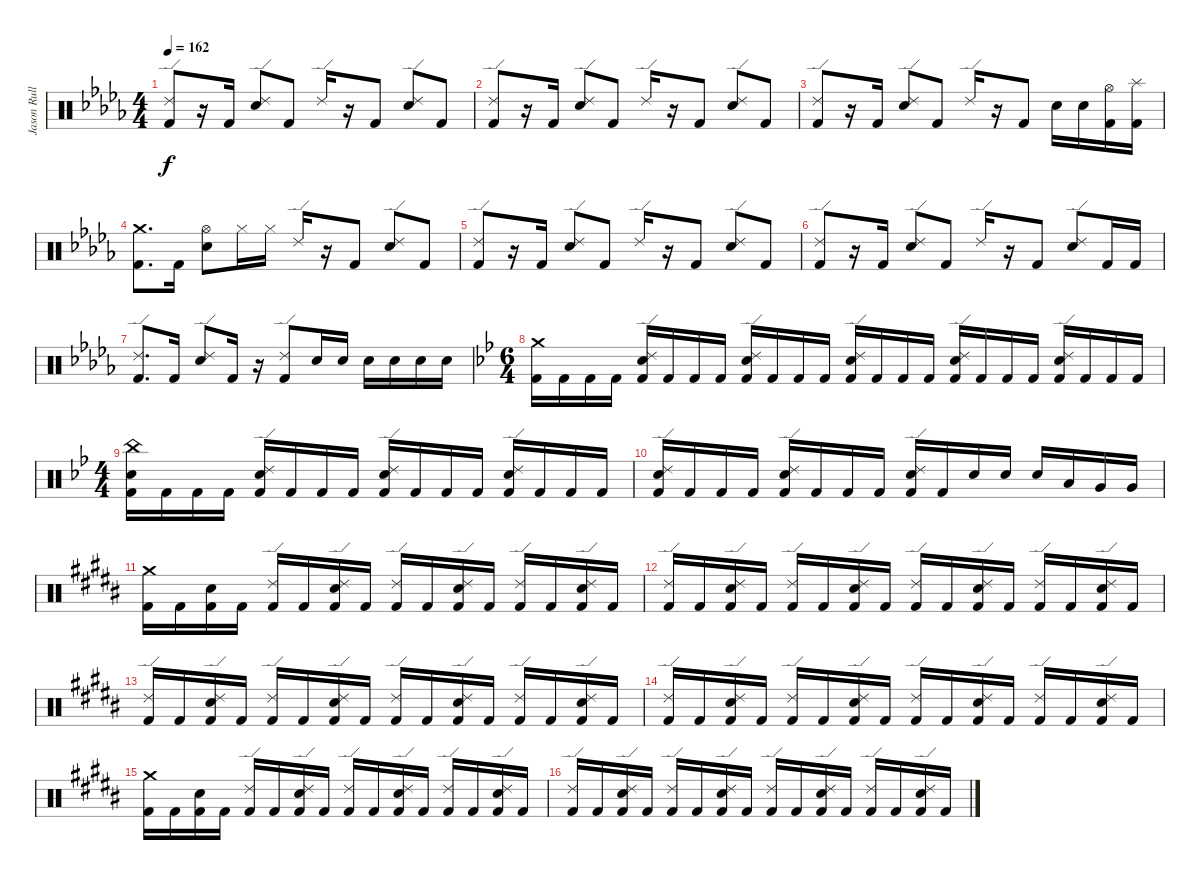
\track ("Jason Rullo" "Jason Rull") {instrument percussion}
\staff {score}
\articulation defaults
\ts (4 4)
\tempo 162
\clef neutral
\ks bbminor
("Ride (edge) 2" "Kick (hit) 2").8{dy f} r.16 "Kick (hit) 2".16 ("Electric Snare (hit)" "Ride (edge) 2").8 "Kick (hit) 2".8 "Ride (edge) 2".16 r.16 "Kick (hit) 2".8 ("Electric Snare (hit)" "Ride (edge) 2").8 "Kick (hit) 2".8 |
("Ride (edge) 2" "Kick (hit) 2").8 r.16 "Kick (hit) 2".16 ("Electric Snare (hit)" "Ride (edge) 2").8 "Kick (hit) 2".8 "Ride (edge) 2".16 r.16 "Kick (hit) 2".8 ("Electric Snare (hit)" "Ride (edge) 2").8 "Kick (hit) 2".8 |
("Ride (edge) 2" "Kick (hit) 2").8 r.16 "Kick (hit) 2".16 ("Electric Snare (hit)" "Ride (edge) 2").8 "Kick (hit) 2".8 "Ride (edge) 2".16 r.16 "Kick (hit) 2".8 "Electric Snare (hit)".16 "Electric Snare (hit)".16 ("Kick (hit) 2" "Hi-Hat (open)").16 ("Kick (hit) 2" "Splash (hit)").16 |
("Crash medium (hit)" "Kick (hit) 2").8{d} "Kick (hit) 2".16 ("Hi-Hat (open)" "Electric Snare (hit)").8 "Hi-Hat (closed)".16 "Hi-Hat (closed)".16 "Ride (edge) 2".16 r.16 "Kick (hit) 2".8 ("Ride (edge) 2" "Electric Snare (hit)").8 "Kick (hit) 2".8 |
("Ride (edge) 2" "Kick (hit) 2").8 r.16 "Kick (hit) 2".16 ("Electric Snare (hit)" "Ride (edge) 2").8 "Kick (hit) 2".8 "Ride (edge) 2".16 r.16 "Kick (hit) 2".8 ("Electric Snare (hit)" "Ride (edge) 2").8 "Kick (hit) 2".8 |
("Ride (edge) 2" "Kick (hit) 2").8 r.16 "Kick (hit) 2".16 ("Electric Snare (hit)" "Ride (edge) 2").8 "Kick (hit) 2".8 "Ride (edge) 2".16 r.16 "Kick (hit) 2".8 ("Electric Snare (hit)" "Ride (edge) 2").8 "Kick (hit) 2".16 "Kick (hit) 2".16 |
("Ride (edge) 2" "Kick (hit) 2").8{d} "Kick (hit) 2".16 ("Ride (edge) 2" "Electric Snare (hit)").8 "Kick (hit) 2".16 r.16 ("Ride (edge) 2" "Kick (hit) 2").8 "Electric Snare (hit)".16 "Electric Snare (hit)".16 "Electric Snare (hit)".16 "Electric Snare (hit)".16 "Electric Snare (hit)".16 "Electric Snare (hit)".16 |
\ts (6 4)
\ks gminor
("Crash medium (hit)" "Kick (hit) 2").16 "Kick (hit) 2".16 "Kick (hit) 2".16 "Kick (hit) 2".16 ("Ride (edge) 2" "Electric Snare (hit)" "Kick (hit) 2").16 "Kick (hit) 2".16 "Kick (hit) 2".16 "Kick (hit) 2".16 ("Ride (edge) 2" "Electric Snare (hit)" "Kick (hit) 2").16 "Kick (hit) 2".16 "Kick (hit) 2".16 "Kick (hit) 2".16 ("Ride (edge) 2" "Electric Snare (hit)" "Kick (hit) 2").16 "Kick (hit) 2".16 "Kick (hit) 2".16 "Kick (hit) 2".16 ("Ride (edge) 2" "Electric Snare (hit)" "Kick (hit) 2").16 "Kick (hit) 2".16 "Kick (hit) 2".16 "Kick (hit) 2".16 ("Ride (edge) 2" "Electric Snare (hit)" "Kick (hit) 2").16 "Kick (hit) 2".16 "Kick (hit) 2".16 "Kick (hit) 2".16 |
\ts (4 4)
("China (hit)" "Electric Snare (hit)" "Kick (hit) 2").16 "Kick (hit) 2".16 "Kick (hit) 2".16 "Kick (hit) 2".16 ("Ride (edge) 2" "Electric Snare (hit)" "Kick (hit) 2").16 "Kick (hit) 2".16 "Kick (hit) 2".16 "Kick (hit) 2".16 ("Ride (edge) 2" "Electric Snare (hit)" "Kick (hit) 2").16 "Kick (hit) 2".16 "Kick (hit) 2".16 "Kick (hit) 2".16 ("Ride (edge) 2" "Electric Snare (hit)" "Kick (hit) 2").16 "Kick (hit) 2".16 "Kick (hit) 2".16 "Kick (hit) 2".16 |
("Ride (edge) 2" "Electric Snare (hit)" "Kick (hit) 2").16 "Kick (hit) 2".16 "Kick (hit) 2".16 "Kick (hit) 2".16 ("Ride (edge) 2" "Electric Snare (hit)" "Kick (hit) 2").16 "Kick (hit) 2".16 "Kick (hit) 2".16 "Kick (hit) 2".16 ("Ride (edge) 2" "Electric Snare (hit)" "Kick (hit) 2").16 "Kick (hit) 2".16 "Electric Snare (hit)".16 "Electric Snare (hit)".16 "Electric Snare (hit)".16 "Low Tom (hit)".16 "Very Low Tom (hit)".16 "Very Low Tom (hit)".16 |
\ks g#minor
("Crash medium (hit)" "Kick (hit) 2").16 "Kick (hit) 2".16 ("Electric Snare (hit)" "Kick (hit) 2").16 "Kick (hit) 2".16 ("Ride (edge) 2" "Kick (hit) 2").16 "Kick (hit) 2".16 ("Electric Snare (hit)" "Ride (edge) 2" "Kick (hit) 2").16 "Kick (hit) 2".16 ("Ride (edge) 2" "Kick (hit) 2").16 "Kick (hit) 2".16 ("Electric Snare (hit)" "Ride (edge) 2" "Kick (hit) 2").16 "Kick (hit) 2".16 ("Ride (edge) 2" "Kick (hit) 2").16 "Kick (hit) 2".16 ("Electric Snare (hit)" "Ride (edge) 2" "Kick (hit) 2").16 "Kick (hit) 2".16 |
("Ride (edge) 2" "Kick (hit) 2").16 "Kick (hit) 2".16 ("Electric Snare (hit)" "Ride (edge) 2" "Kick (hit) 2").16 "Kick (hit) 2".16 ("Ride (edge) 2" "Kick (hit) 2").16 "Kick (hit) 2".16 ("Electric Snare (hit)" "Ride (edge) 2" "Kick (hit) 2").16 "Kick (hit) 2".16 ("Ride (edge) 2" "Kick (hit) 2").16 "Kick (hit) 2".16 ("Electric Snare (hit)" "Ride (edge) 2" "Kick (hit) 2").16 "Kick (hit) 2".16 ("Ride (edge) 2" "Kick (hit) 2").16 "Kick (hit) 2".16 ("Electric Snare (hit)" "Ride (edge) 2" "Kick (hit) 2").16 "Kick (hit) 2".16 |
("Ride (edge) 2" "Kick (hit) 2").16 "Kick (hit) 2".16 ("Electric Snare (hit)" "Ride (edge) 2" "Kick (hit) 2").16 "Kick (hit) 2".16 ("Ride (edge) 2" "Kick (hit) 2").16 "Kick (hit) 2".16 ("Electric Snare (hit)" "Ride (edge) 2" "Kick (hit) 2").16 "Kick (hit) 2".16 ("Ride (edge) 2" "Kick (hit) 2").16 "Kick (hit) 2".16 ("Electric Snare (hit)" "Ride (edge) 2" "Kick (hit) 2").16 "Kick (hit) 2".16 ("Ride (edge) 2" "Kick (hit) 2").16 "Kick (hit) 2".16 ("Electric Snare (hit)" "Ride (edge) 2" "Kick (hit) 2").16 "Kick (hit) 2".16 |
("Ride (edge) 2" "Kick (hit) 2").16 "Kick (hit) 2".16 ("Electric Snare (hit)" "Ride (edge) 2" "Kick (hit) 2").16 "Kick (hit) 2".16 ("Ride (edge) 2" "Kick (hit) 2").16 "Kick (hit) 2".16 ("Electric Snare (hit)" "Ride (edge) 2" "Kick (hit) 2").16 "Kick (hit) 2".16 ("Ride (edge) 2" "Kick (hit) 2").16 "Kick (hit) 2".16 ("Electric Snare (hit)" "Ride (edge) 2" "Kick (hit) 2").16 "Kick (hit) 2".16 ("Ride (edge) 2" "Kick (hit) 2").16 "Kick (hit) 2".16 ("Electric Snare (hit)" "Ride (edge) 2" "Kick (hit) 2").16 "Kick (hit) 2".16 |
("Crash medium (hit)" "Kick (hit) 2").16 "Kick (hit) 2".16 ("Electric Snare (hit)" "Kick (hit) 2").16 "Kick (hit) 2".16 ("Ride (edge) 2" "Kick (hit) 2").16 "Kick (hit) 2".16 ("Electric Snare (hit)" "Ride (edge) 2" "Kick (hit) 2").16 "Kick (hit) 2".16 ("Ride (edge) 2" "Kick (hit) 2").16 "Kick (hit) 2".16 ("Electric Snare (hit)" "Ride (edge) 2" "Kick (hit) 2").16 "Kick (hit) 2".16 ("Ride (edge) 2" "Kick (hit) 2").16 "Kick (hit) 2".16 ("Electric Snare (hit)" "Ride (edge) 2" "Kick (hit) 2").16 "Kick (hit) 2".16 |
("Ride (edge) 2" "Kick (hit) 2").16 "Kick (hit) 2".16 ("Electric Snare (hit)" "Ride (edge) 2" "Kick (hit) 2").16 "Kick (hit) 2".16 ("Ride (edge) 2" "Kick (hit) 2").16 "Kick (hit) 2".16 ("Electric Snare (hit)" "Ride (edge) 2" "Kick (hit) 2").16 "Kick (hit) 2".16 ("Ride (edge) 2" "Kick (hit) 2").16 "Kick (hit) 2".16 ("Electric Snare (hit)" "Ride (edge) 2" "Kick (hit) 2").16 "Kick (hit) 2".16 ("Ride (edge) 2" "Kick (hit) 2").16 "Kick (hit) 2".16 ("Electric Snare (hit)" "Ride (edge) 2" "Kick (hit) 2").16 "Kick (hit) 2".16
